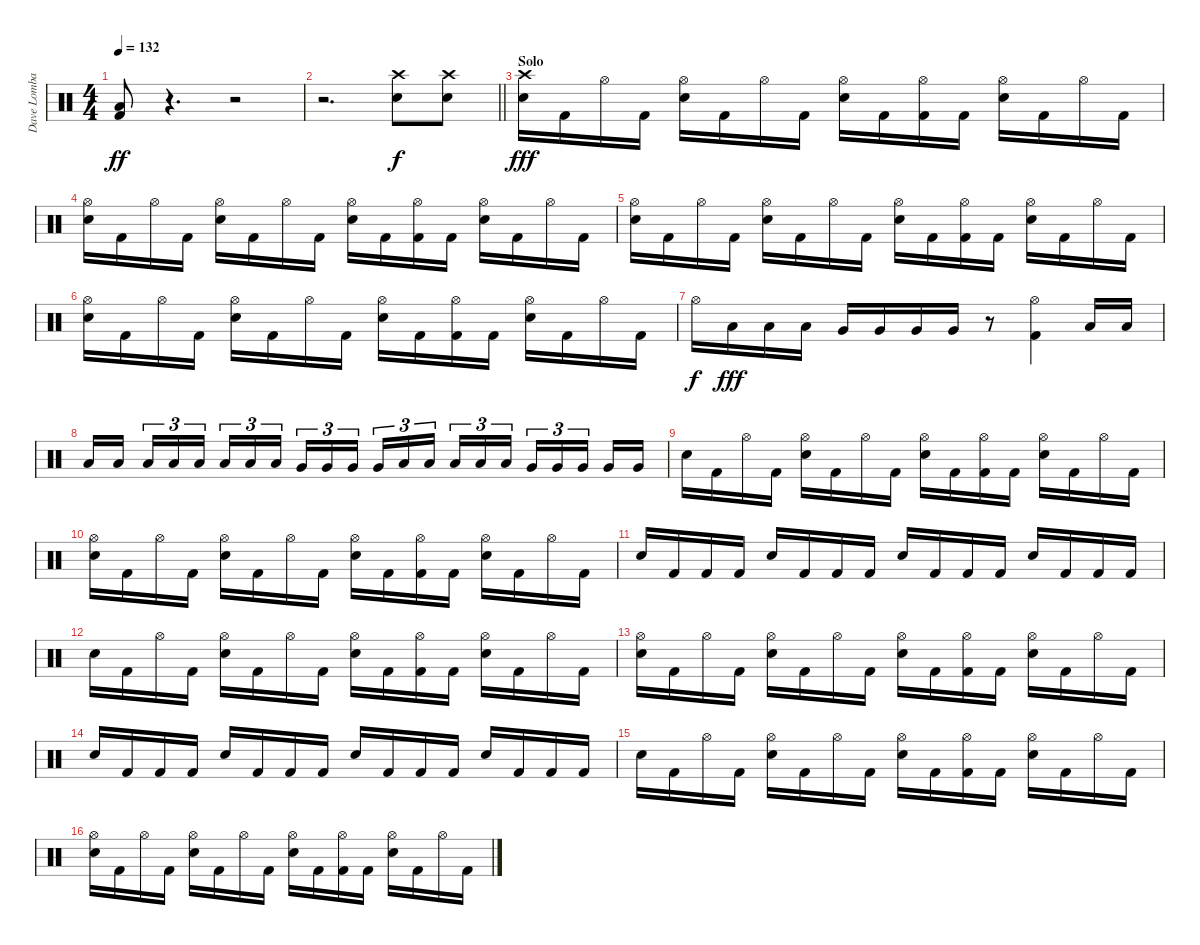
\track ("Dave Lombardo" "Dave Lomba") {instrument percussion}
\staff {score}
\articulation defaults
\ts (4 4)
\tempo 132
\clef neutral
\ks c
("Low Floor Tom (hit)" "Kick (hit) 2").8{dy ff} r.4{d} r.2 |
\barLineRight lightlight
r.2{d} ("Crash high (hit)" "Snare (hit) 2").8{dy f} ("Crash high (hit)" "Snare (hit) 2").8 |
\section ("" "Solo")
("Crash high (hit)" "Snare (hit) 2").16{dy fff} "Kick (hit) 2".16 "Hi-Hat (open)".16 "Kick (hit) 2".16 ("Hi-Hat (open)" "Snare (hit) 2").16 "Kick (hit) 2".16 "Hi-Hat (open)".16 "Kick (hit) 2".16 ("Hi-Hat (open)" "Snare (hit) 2").16 "Kick (hit) 2".16 ("Hi-Hat (open)" "Kick (hit) 2").16 "Kick (hit) 2".16 ("Hi-Hat (open)" "Snare (hit) 2").16 "Kick (hit) 2".16 "Hi-Hat (open)".16 "Kick (hit) 2".16 |
("Hi-Hat (open)" "Snare (hit) 2").16 "Kick (hit) 2".16 "Hi-Hat (open)".16 "Kick (hit) 2".16 ("Hi-Hat (open)" "Snare (hit) 2").16 "Kick (hit) 2".16 "Hi-Hat (open)".16 "Kick (hit) 2".16 ("Hi-Hat (open)" "Snare (hit) 2").16 "Kick (hit) 2".16 ("Hi-Hat (open)" "Kick (hit) 2").16 "Kick (hit) 2".16 ("Hi-Hat (open)" "Snare (hit) 2").16 "Kick (hit) 2".16 "Hi-Hat (open)".16 "Kick (hit) 2".16 |
("Hi-Hat (open)" "Snare (hit) 2").16 "Kick (hit) 2".16 "Hi-Hat (open)".16 "Kick (hit) 2".16 ("Hi-Hat (open)" "Snare (hit) 2").16 "Kick (hit) 2".16 "Hi-Hat (open)".16 "Kick (hit) 2".16 ("Hi-Hat (open)" "Snare (hit) 2").16 "Kick (hit) 2".16 ("Hi-Hat (open)" "Kick (hit) 2").16 "Kick (hit) 2".16 ("Hi-Hat (open)" "Snare (hit) 2").16 "Kick (hit) 2".16 "Hi-Hat (open)".16 "Kick (hit) 2".16 |
("Hi-Hat (open)" "Snare (hit) 2").16 "Kick (hit) 2".16 "Hi-Hat (open)".16 "Kick (hit) 2".16 ("Hi-Hat (open)" "Snare (hit) 2").16 "Kick (hit) 2".16 "Hi-Hat (open)".16 "Kick (hit) 2".16 ("Hi-Hat (open)" "Snare (hit) 2").16 "Kick (hit) 2".16 ("Hi-Hat (open)" "Kick (hit) 2").16 "Kick (hit) 2".16 ("Hi-Hat (open)" "Snare (hit) 2").16 "Kick (hit) 2".16 "Hi-Hat (open)".16 "Kick (hit) 2".16 |
"Hi-Hat (open)".16{dy f} "Low Tom (hit)".16{dy fff} "Low Tom (hit)".16 "Low Tom (hit)".16 "Very Low Tom (hit)".16 "Very Low Tom (hit)".16 "Very Low Tom (hit)".16 "Very Low Tom (hit)".16 r.8 ("Hi-Hat (open)" "Kick (hit) 2").4 "Low Floor Tom (hit)".16 "Low Floor Tom (hit)".16 |
"Low Floor Tom (hit)".16 "Low Floor Tom (hit)".16{beam splitsecondary} "Low Floor Tom (hit)".16{tu (3 2)} "Low Floor Tom (hit)".16{tu (3 2)} "Low Tom (hit)".16{tu (3 2)} "Low Tom (hit)".16{tu (3 2)} "Low Tom (hit)".16{tu (3 2)} "Low Tom (hit)".16{tu (3 2) beam splitsecondary} "Very Low Tom (hit)".16{tu (3 2)} "Very Low Tom (hit)".16{tu (3 2)} "Very Low Tom (hit)".16{tu (3 2)} "Very Low Tom (hit)".16{tu (3 2)} "Low Floor Tom (hit)".16{tu (3 2)} "Low Floor Tom (hit)".16{tu (3 2) beam splitsecondary} "Low Floor Tom (hit)".16{tu (3 2)} "Low Floor Tom (hit)".16{tu (3 2)} "Low Floor Tom (hit)".16{tu (3 2)} "Very Low Tom (hit)".16{tu (3 2)} "Very Low Tom (hit)".16{tu (3 2)} "Very Low Tom (hit)".16{tu (3 2) beam splitsecondary} "Very Low Tom (hit)".16 "Very Low Tom (hit)".16 |
"Snare (hit) 2".16 "Kick (hit) 2".16 "Hi-Hat (open)".16 "Kick (hit) 2".16 ("Hi-Hat (open)" "Snare (hit) 2").16 "Kick (hit) 2".16 "Hi-Hat (open)".16 "Kick (hit) 2".16 ("Hi-Hat (open)" "Snare (hit) 2").16 "Kick (hit) 2".16 ("Hi-Hat (open)" "Kick (hit) 2").16 "Kick (hit) 2".16 ("Hi-Hat (open)" "Snare (hit) 2").16 "Kick (hit) 2".16 "Hi-Hat (open)".16 "Kick (hit) 2".16 |
("Hi-Hat (open)" "Snare (hit) 2").16 "Kick (hit) 2".16 "Hi-Hat (open)".16 "Kick (hit) 2".16 ("Hi-Hat (open)" "Snare (hit) 2").16 "Kick (hit) 2".16 "Hi-Hat (open)".16 "Kick (hit) 2".16 ("Hi-Hat (open)" "Snare (hit) 2").16 "Kick (hit) 2".16 ("Hi-Hat (open)" "Kick (hit) 2").16 "Kick (hit) 2".16 ("Hi-Hat (open)" "Snare (hit) 2").16 "Kick (hit) 2".16 "Hi-Hat (open)".16 "Kick (hit) 2".16 |
"Snare (hit) 2".16 "Kick (hit) 2".16 "Kick (hit) 2".16 "Kick (hit) 2".16 "Snare (hit) 2".16 "Kick (hit) 2".16 "Kick (hit) 2".16 "Kick (hit) 2".16 "Snare (hit) 2".16 "Kick (hit) 2".16 "Kick (hit) 2".16 "Kick (hit) 2".16 "Snare (hit) 2".16 "Kick (hit) 2".16 "Kick (hit) 2".16 "Kick (hit) 2".16 |
"Snare (hit) 2".16 "Kick (hit) 2".16 "Hi-Hat (open)".16 "Kick (hit) 2".16 ("Hi-Hat (open)" "Snare (hit) 2").16 "Kick (hit) 2".16 "Hi-Hat (open)".16 "Kick (hit) 2".16 ("Hi-Hat (open)" "Snare (hit) 2").16 "Kick (hit) 2".16 ("Hi-Hat (open)" "Kick (hit) 2").16 "Kick (hit) 2".16 ("Hi-Hat (open)" "Snare (hit) 2").16 "Kick (hit) 2".16 "Hi-Hat (open)".16 "Kick (hit) 2".16 |
("Hi-Hat (open)" "Snare (hit) 2").16 "Kick (hit) 2".16 "Hi-Hat (open)".16 "Kick (hit) 2".16 ("Hi-Hat (open)" "Snare (hit) 2").16 "Kick (hit) 2".16 "Hi-Hat (open)".16 "Kick (hit) 2".16 ("Hi-Hat (open)" "Snare (hit) 2").16 "Kick (hit) 2".16 ("Hi-Hat (open)" "Kick (hit) 2").16 "Kick (hit) 2".16 ("Hi-Hat (open)" "Snare (hit) 2").16 "Kick (hit) 2".16 "Hi-Hat (open)".16 "Kick (hit) 2".16 |
"Snare (hit) 2".16 "Kick (hit) 2".16 "Kick (hit) 2".16 "Kick (hit) 2".16 "Snare (hit) 2".16 "Kick (hit) 2".16 "Kick (hit) 2".16 "Kick (hit) 2".16 "Snare (hit) 2".16 "Kick (hit) 2".16 "Kick (hit) 2".16 "Kick (hit) 2".16 "Snare (hit) 2".16 "Kick (hit) 2".16 "Kick (hit) 2".16 "Kick (hit) 2".16 |
"Snare (hit) 2".16 "Kick (hit) 2".16 "Hi-Hat (open)".16 "Kick (hit) 2".16 ("Hi-Hat (open)" "Snare (hit) 2").16 "Kick (hit) 2".16 "Hi-Hat (open)".16 "Kick (hit) 2".16 ("Hi-Hat (open)" "Snare (hit) 2").16 "Kick (hit) 2".16 ("Hi-Hat (open)" "Kick (hit) 2").16 "Kick (hit) 2".16 ("Hi-Hat (open)" "Snare (hit) 2").16 "Kick (hit) 2".16 "Hi-Hat (open)".16 "Kick (hit) 2".16 |
("Hi-Hat (open)" "Snare (hit) 2").16 "Kick (hit) 2".16 "Hi-Hat (open)".16 "Kick (hit) 2".16 ("Hi-Hat (open)" "Snare (hit) 2").16 "Kick (hit) 2".16 "Hi-Hat (open)".16 "Kick (hit) 2".16 ("Hi-Hat (open)" "Snare (hit) 2").16 "Kick (hit) 2".16 ("Hi-Hat (open)" "Kick (hit) 2").16 "Kick (hit) 2".16 ("Hi-Hat (open)" "Snare (hit) 2").16 "Kick (hit) 2".16 "Hi-Hat (open)".16 "Kick (hit) 2".16
